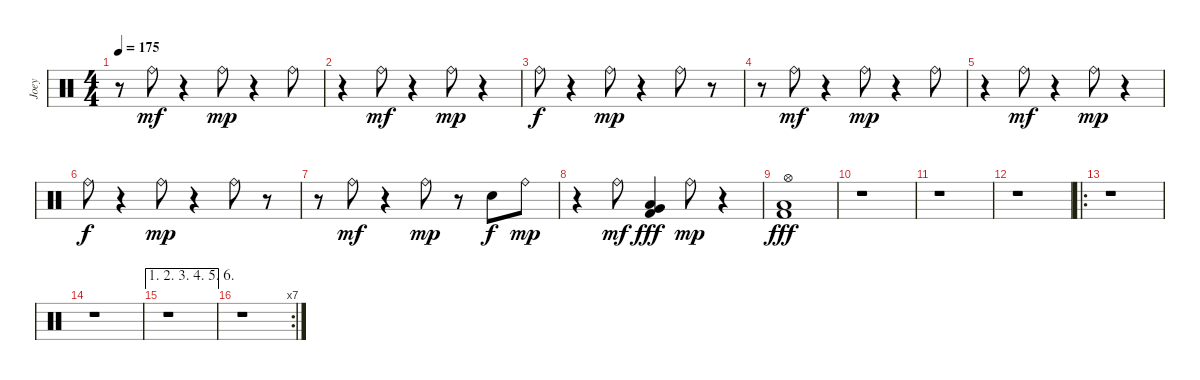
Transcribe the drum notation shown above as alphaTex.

\track ("Joey" "Joey") {instrument percussion}
\staff {score}
\articulation defaults
\ts (4 4)
\tempo 175
\clef neutral
\ks c
r.8{dy mp} "Ride (bell)".8{dy mf} r.4 "Ride (bell)".8{dy mp} r.4 "Ride (bell)".8 |
r.4 "Ride (bell)".8{dy mf} r.4 "Ride (bell)".8{dy mp} r.4 |
"Ride (bell)".8{dy f} r.4 "Ride (bell)".8{dy mp} r.4 "Ride (bell)".8 r.8 |
r.8 "Ride (bell)".8{dy mf} r.4 "Ride (bell)".8{dy mp} r.4 "Ride (bell)".8 |
r.4 "Ride (bell)".8{dy mf} r.4 "Ride (bell)".8{dy mp} r.4 |
"Ride (bell)".8{dy f} r.4 "Ride (bell)".8{dy mp} r.4 "Ride (bell)".8 r.8 |
r.8 "Ride (bell)".8{dy mf} r.4 "Ride (bell)".8{dy mp} r.8 "Electric Snare (hit)".8{dy f} "Ride (bell)".8{dy mp} |
r.4 "Ride (bell)".8{dy mf} ("Low Tom (hit)" "Very Low Tom (hit)" "Kick (hit) 2").4{dy fff} "Ride (bell)".8{dy mp} r.4 |
("Hi-Hat (open)" "Low Floor Tom (hit)" "Kick (hit) 2").1{dy fff} |
r.1 |
r.1 |
r.1 |
\ro
r.1 |
r.1 |
\ae (1 2 3 4 5 6)
r.1 |
\rc 7
r.1
